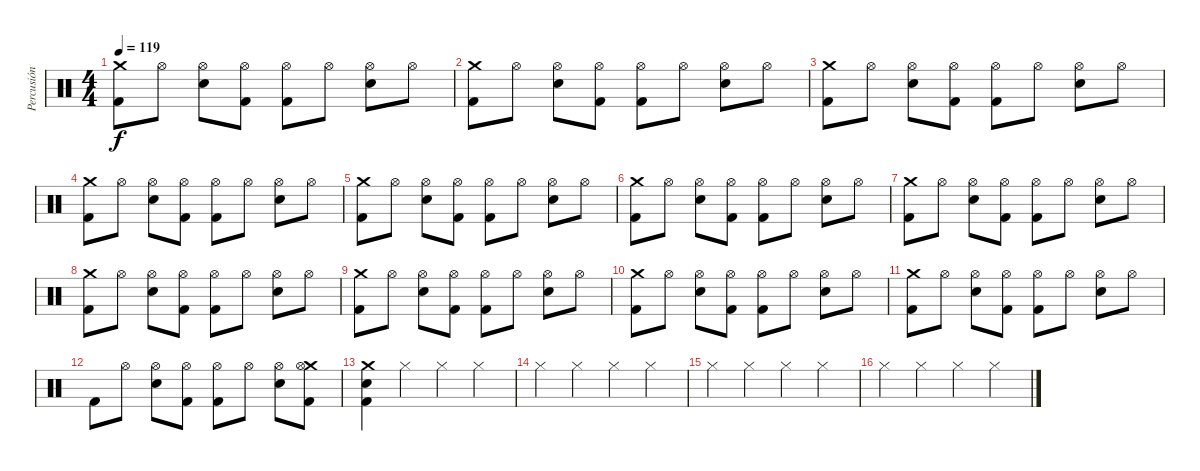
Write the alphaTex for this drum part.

\track ("Percusión" "Percusión") {instrument percussion}
\staff {score}
\articulation defaults
\ts (4 4)
\tempo 119
\clef neutral
\ks c
("Crash medium (hit)" "Kick (hit) 2").8{dy f} "Hi-Hat (open)".8 ("Hi-Hat (open)" "Electric Snare (hit)").8 ("Hi-Hat (open)" "Kick (hit) 2").8 ("Hi-Hat (open)" "Kick (hit) 2").8 "Hi-Hat (open)".8 ("Hi-Hat (open)" "Electric Snare (hit)").8 "Hi-Hat (open)".8 |
("Crash medium (hit)" "Kick (hit) 2").8 "Hi-Hat (open)".8 ("Hi-Hat (open)" "Electric Snare (hit)").8 ("Hi-Hat (open)" "Kick (hit) 2").8 ("Hi-Hat (open)" "Kick (hit) 2").8 "Hi-Hat (open)".8 ("Hi-Hat (open)" "Electric Snare (hit)").8 "Hi-Hat (open)".8 |
("Crash medium (hit)" "Kick (hit) 2").8 "Hi-Hat (open)".8 ("Hi-Hat (open)" "Electric Snare (hit)").8 ("Hi-Hat (open)" "Kick (hit) 2").8 ("Hi-Hat (open)" "Kick (hit) 2").8 "Hi-Hat (open)".8 ("Hi-Hat (open)" "Electric Snare (hit)").8 "Hi-Hat (open)".8 |
("Crash medium (hit)" "Kick (hit) 2").8 "Hi-Hat (open)".8 ("Hi-Hat (open)" "Electric Snare (hit)").8 ("Hi-Hat (open)" "Kick (hit) 2").8 ("Hi-Hat (open)" "Kick (hit) 2").8 "Hi-Hat (open)".8 ("Hi-Hat (open)" "Electric Snare (hit)").8 "Hi-Hat (open)".8 |
("Crash medium (hit)" "Kick (hit) 2").8 "Hi-Hat (open)".8 ("Hi-Hat (open)" "Electric Snare (hit)").8 ("Hi-Hat (open)" "Kick (hit) 2").8 ("Hi-Hat (open)" "Kick (hit) 2").8 "Hi-Hat (open)".8 ("Hi-Hat (open)" "Electric Snare (hit)").8 "Hi-Hat (open)".8 |
("Crash medium (hit)" "Kick (hit) 2").8 "Hi-Hat (open)".8 ("Hi-Hat (open)" "Electric Snare (hit)").8 ("Hi-Hat (open)" "Kick (hit) 2").8 ("Hi-Hat (open)" "Kick (hit) 2").8 "Hi-Hat (open)".8 ("Hi-Hat (open)" "Electric Snare (hit)").8 "Hi-Hat (open)".8 |
("Crash medium (hit)" "Kick (hit) 2").8 "Hi-Hat (open)".8 ("Hi-Hat (open)" "Electric Snare (hit)").8 ("Hi-Hat (open)" "Kick (hit) 2").8 ("Hi-Hat (open)" "Kick (hit) 2").8 "Hi-Hat (open)".8 ("Hi-Hat (open)" "Electric Snare (hit)").8 "Hi-Hat (open)".8 |
("Crash medium (hit)" "Kick (hit) 2").8 "Hi-Hat (open)".8 ("Hi-Hat (open)" "Electric Snare (hit)").8 ("Hi-Hat (open)" "Kick (hit) 2").8 ("Hi-Hat (open)" "Kick (hit) 2").8 "Hi-Hat (open)".8 ("Hi-Hat (open)" "Electric Snare (hit)").8 "Hi-Hat (open)".8 |
("Crash medium (hit)" "Kick (hit) 2").8 "Hi-Hat (open)".8 ("Hi-Hat (open)" "Electric Snare (hit)").8 ("Hi-Hat (open)" "Kick (hit) 2").8 ("Hi-Hat (open)" "Kick (hit) 2").8 "Hi-Hat (open)".8 ("Hi-Hat (open)" "Electric Snare (hit)").8 "Hi-Hat (open)".8 |
("Crash medium (hit)" "Kick (hit) 2").8 "Hi-Hat (open)".8 ("Hi-Hat (open)" "Electric Snare (hit)").8 ("Hi-Hat (open)" "Kick (hit) 2").8 ("Hi-Hat (open)" "Kick (hit) 2").8 "Hi-Hat (open)".8 ("Hi-Hat (open)" "Electric Snare (hit)").8 "Hi-Hat (open)".8 |
("Crash medium (hit)" "Kick (hit) 2").8 "Hi-Hat (open)".8 ("Hi-Hat (open)" "Electric Snare (hit)").8 ("Hi-Hat (open)" "Kick (hit) 2").8 ("Hi-Hat (open)" "Kick (hit) 2").8 "Hi-Hat (open)".8 ("Hi-Hat (open)" "Electric Snare (hit)").8 "Hi-Hat (open)".8 |
"Kick (hit) 2".8 "Hi-Hat (open)".8 ("Hi-Hat (open)" "Electric Snare (hit)").8 ("Hi-Hat (open)" "Kick (hit) 2").8 ("Hi-Hat (open)" "Kick (hit) 2").8 "Hi-Hat (open)".8 ("Hi-Hat (open)" "Electric Snare (hit)").8 ("Crash medium (hit)" "Kick (hit) 2" "Hi-Hat (open)").8 |
("Crash medium (hit)" "Kick (hit) 2" "Electric Snare (hit)").4 "Hi-Hat (closed)".4 "Hi-Hat (closed)".4 "Hi-Hat (closed)".4 |
"Hi-Hat (closed)".4 "Hi-Hat (closed)".4 "Hi-Hat (closed)".4 "Hi-Hat (closed)".4 |
"Hi-Hat (closed)".4 "Hi-Hat (closed)".4 "Hi-Hat (closed)".4 "Hi-Hat (closed)".4 |
"Hi-Hat (closed)".4 "Hi-Hat (closed)".4 "Hi-Hat (closed)".4 "Hi-Hat (closed)".4
